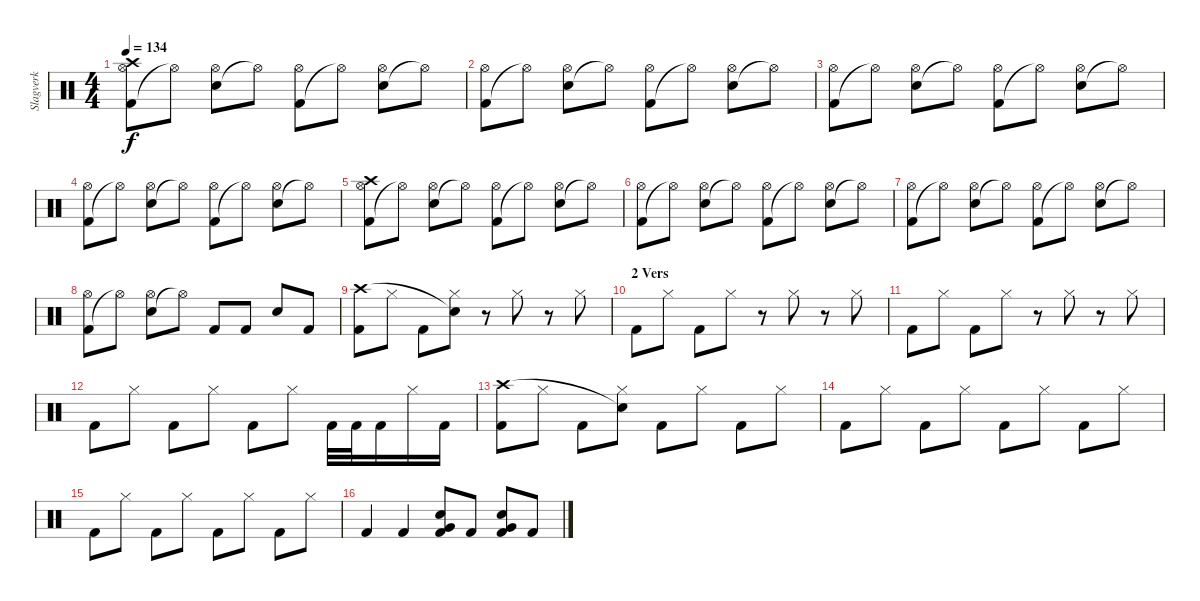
\track ("Slagverk" "Slagverk") {instrument percussion}
\staff {score}
\articulation defaults
\ts (4 4)
\tempo 134
\clef neutral
\ks c
("Kick (hit) 2" "Hi-Hat (open)" "Crash high (hit)").8{dy f} "Hi-Hat (open)"{t}.8 ("Electric Snare (hit)" "Hi-Hat (open)").8 "Hi-Hat (open)"{t}.8 ("Kick (hit) 2" "Hi-Hat (open)").8 "Hi-Hat (open)"{t}.8 ("Electric Snare (hit)" "Hi-Hat (open)").8 "Hi-Hat (open)"{t}.8 |
("Kick (hit) 2" "Hi-Hat (open)").8 "Hi-Hat (open)"{t}.8 ("Electric Snare (hit)" "Hi-Hat (open)").8 "Hi-Hat (open)"{t}.8 ("Kick (hit) 2" "Hi-Hat (open)").8 "Hi-Hat (open)"{t}.8 ("Electric Snare (hit)" "Hi-Hat (open)").8 "Hi-Hat (open)"{t}.8 |
("Kick (hit) 2" "Hi-Hat (open)").8 "Hi-Hat (open)"{t}.8 ("Electric Snare (hit)" "Hi-Hat (open)").8 "Hi-Hat (open)"{t}.8 ("Kick (hit) 2" "Hi-Hat (open)").8 "Hi-Hat (open)"{t}.8 ("Electric Snare (hit)" "Hi-Hat (open)").8 "Hi-Hat (open)"{t}.8 |
("Kick (hit) 2" "Hi-Hat (open)").8 "Hi-Hat (open)"{t}.8 ("Electric Snare (hit)" "Hi-Hat (open)").8 "Hi-Hat (open)"{t}.8 ("Kick (hit) 2" "Hi-Hat (open)").8 "Hi-Hat (open)"{t}.8 ("Electric Snare (hit)" "Hi-Hat (open)").8 "Hi-Hat (open)"{t}.8 |
("Kick (hit) 2" "Hi-Hat (open)" "Crash high (hit)").8 "Hi-Hat (open)"{t}.8 ("Electric Snare (hit)" "Hi-Hat (open)").8 "Hi-Hat (open)"{t}.8 ("Kick (hit) 2" "Hi-Hat (open)").8 "Hi-Hat (open)"{t}.8 ("Electric Snare (hit)" "Hi-Hat (open)").8 "Hi-Hat (open)"{t}.8 |
("Kick (hit) 2" "Hi-Hat (open)").8 "Hi-Hat (open)"{t}.8 ("Electric Snare (hit)" "Hi-Hat (open)").8 "Hi-Hat (open)"{t}.8 ("Kick (hit) 2" "Hi-Hat (open)").8 "Hi-Hat (open)"{t}.8 ("Electric Snare (hit)" "Hi-Hat (open)").8 "Hi-Hat (open)"{t}.8 |
("Kick (hit) 2" "Hi-Hat (open)").8 "Hi-Hat (open)"{t}.8 ("Electric Snare (hit)" "Hi-Hat (open)").8 "Hi-Hat (open)"{t}.8 ("Kick (hit) 2" "Hi-Hat (open)").8 "Hi-Hat (open)"{t}.8 ("Electric Snare (hit)" "Hi-Hat (open)").8 "Hi-Hat (open)"{t}.8 |
("Kick (hit) 2" "Hi-Hat (open)").8 "Hi-Hat (open)"{t}.8 ("Electric Snare (hit)" "Hi-Hat (open)").8 "Hi-Hat (open)"{t}.8 "Kick (hit) 2".8 "Kick (hit) 2".8 "Electric Snare (hit)".8 "Kick (hit) 2".8 |
("Kick (hit) 2" "Crash high (hit)").8 "Hi-Hat (closed)".8 "Kick (hit) 2".8 ("Hi-Hat (closed)" "Snare (hit)"{t}).8 r.8 "Hi-Hat (closed)".8 r.8 "Hi-Hat (closed)".8 |
\section ("" "2 Vers")
"Kick (hit) 2".8 "Hi-Hat (closed)".8 "Kick (hit) 2".8 "Hi-Hat (closed)".8 r.8 "Hi-Hat (closed)".8 r.8 "Hi-Hat (closed)".8 |
"Kick (hit) 2".8 "Hi-Hat (closed)".8 "Kick (hit) 2".8 "Hi-Hat (closed)".8 r.8 "Hi-Hat (closed)".8 r.8 "Hi-Hat (closed)".8 |
"Kick (hit) 2".8 "Hi-Hat (closed)".8 "Kick (hit) 2".8 "Hi-Hat (closed)".8 "Kick (hit) 2".8 "Hi-Hat (closed)".8 "Kick (hit) 2".32 "Kick (hit) 2".32 "Kick (hit) 2".16 "Hi-Hat (closed)".16 "Kick (hit) 2".16 |
("Kick (hit) 2" "Crash high (hit)").8 "Hi-Hat (closed)".8 "Kick (hit) 2".8 ("Hi-Hat (closed)" "Snare (hit)"{t}).8 "Kick (hit) 2".8 "Hi-Hat (closed)".8 "Kick (hit) 2".8 "Hi-Hat (closed)".8 |
"Kick (hit) 2".8 "Hi-Hat (closed)".8 "Kick (hit) 2".8 "Hi-Hat (closed)".8 "Kick (hit) 2".8 "Hi-Hat (closed)".8 "Kick (hit) 2".8 "Hi-Hat (closed)".8 |
"Kick (hit) 2".8 "Hi-Hat (closed)".8 "Kick (hit) 2".8 "Hi-Hat (closed)".8 "Kick (hit) 2".8 "Hi-Hat (closed)".8 "Kick (hit) 2".8 "Hi-Hat (closed)".8 |
"Kick (hit) 2".4 "Kick (hit) 2".4 ("Kick (hit) 2" "Very Low Tom (hit)" "Electric Snare (hit)").8 "Kick (hit) 2".8 ("Kick (hit) 2" "Very Low Tom (hit)" "Electric Snare (hit)").8 "Kick (hit) 2".8
